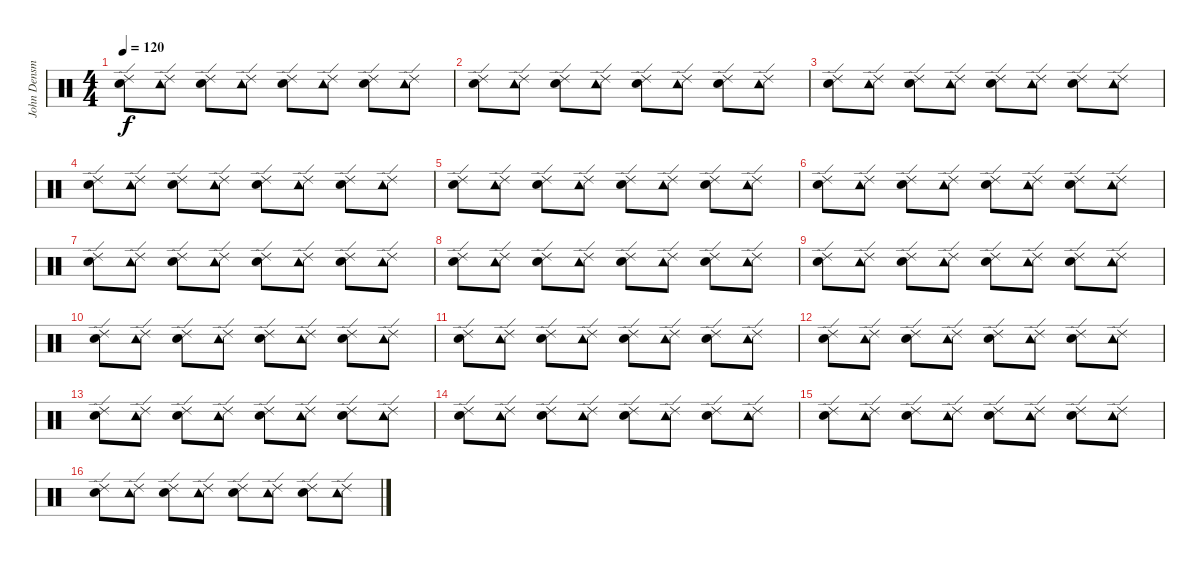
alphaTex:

\track ("John Densmore" "John Densm") {instrument percussion}
\staff {score}
\articulation defaults
\ts (4 4)
\tempo 120
\clef neutral
\ks c
("Ride (edge) 2" "Electric Snare (hit)").8{dy f} ("Ride (edge) 2" "Tambourine (hit)").8 ("Ride (edge) 2" "Snare (hit) 2").8 ("Ride (edge) 2" "Tambourine (hit)").8 ("Ride (edge) 2" "Electric Snare (hit)").8 ("Ride (edge) 2" "Tambourine (hit)").8 ("Ride (edge) 2" "Snare (hit) 2").8 ("Ride (edge) 2" "Tambourine (hit)").8 |
("Ride (edge) 2" "Electric Snare (hit)").8 ("Ride (edge) 2" "Tambourine (hit)").8 ("Ride (edge) 2" "Snare (hit) 2").8 ("Ride (edge) 2" "Tambourine (hit)").8 ("Ride (edge) 2" "Electric Snare (hit)").8 ("Ride (edge) 2" "Tambourine (hit)").8 ("Ride (edge) 2" "Snare (hit) 2").8 ("Ride (edge) 2" "Tambourine (hit)").8 |
("Ride (edge) 2" "Electric Snare (hit)").8 ("Ride (edge) 2" "Tambourine (hit)").8 ("Ride (edge) 2" "Snare (hit) 2").8 ("Ride (edge) 2" "Tambourine (hit)").8 ("Ride (edge) 2" "Electric Snare (hit)").8 ("Ride (edge) 2" "Tambourine (hit)").8 ("Ride (edge) 2" "Snare (hit) 2").8 ("Ride (edge) 2" "Tambourine (hit)").8 |
("Ride (edge) 2" "Electric Snare (hit)").8 ("Ride (edge) 2" "Tambourine (hit)").8 ("Ride (edge) 2" "Snare (hit) 2").8 ("Ride (edge) 2" "Tambourine (hit)").8 ("Ride (edge) 2" "Electric Snare (hit)").8 ("Ride (edge) 2" "Tambourine (hit)").8 ("Ride (edge) 2" "Snare (hit) 2").8 ("Ride (edge) 2" "Tambourine (hit)").8 |
("Ride (edge) 2" "Electric Snare (hit)").8 ("Ride (edge) 2" "Tambourine (hit)").8 ("Ride (edge) 2" "Snare (hit) 2").8 ("Ride (edge) 2" "Tambourine (hit)").8 ("Ride (edge) 2" "Electric Snare (hit)").8 ("Ride (edge) 2" "Tambourine (hit)").8 ("Ride (edge) 2" "Snare (hit) 2").8 ("Ride (edge) 2" "Tambourine (hit)").8 |
("Ride (edge) 2" "Electric Snare (hit)").8 ("Ride (edge) 2" "Tambourine (hit)").8 ("Ride (edge) 2" "Snare (hit) 2").8 ("Ride (edge) 2" "Tambourine (hit)").8 ("Ride (edge) 2" "Electric Snare (hit)").8 ("Ride (edge) 2" "Tambourine (hit)").8 ("Ride (edge) 2" "Snare (hit) 2").8 ("Ride (edge) 2" "Tambourine (hit)").8 |
("Ride (edge) 2" "Electric Snare (hit)").8 ("Ride (edge) 2" "Tambourine (hit)").8 ("Ride (edge) 2" "Snare (hit) 2").8 ("Ride (edge) 2" "Tambourine (hit)").8 ("Ride (edge) 2" "Electric Snare (hit)").8 ("Ride (edge) 2" "Tambourine (hit)").8 ("Ride (edge) 2" "Snare (hit) 2").8 ("Ride (edge) 2" "Tambourine (hit)").8 |
("Ride (edge) 2" "Electric Snare (hit)").8 ("Ride (edge) 2" "Tambourine (hit)").8 ("Ride (edge) 2" "Snare (hit) 2").8 ("Ride (edge) 2" "Tambourine (hit)").8 ("Ride (edge) 2" "Electric Snare (hit)").8 ("Ride (edge) 2" "Tambourine (hit)").8 ("Ride (edge) 2" "Snare (hit) 2").8 ("Ride (edge) 2" "Tambourine (hit)").8 |
("Ride (edge) 2" "Electric Snare (hit)").8 ("Ride (edge) 2" "Tambourine (hit)").8 ("Ride (edge) 2" "Snare (hit) 2").8 ("Ride (edge) 2" "Tambourine (hit)").8 ("Ride (edge) 2" "Electric Snare (hit)").8 ("Ride (edge) 2" "Tambourine (hit)").8 ("Ride (edge) 2" "Snare (hit) 2").8 ("Ride (edge) 2" "Tambourine (hit)").8 |
("Ride (edge) 2" "Electric Snare (hit)").8 ("Ride (edge) 2" "Tambourine (hit)").8 ("Ride (edge) 2" "Snare (hit) 2").8 ("Ride (edge) 2" "Tambourine (hit)").8 ("Ride (edge) 2" "Electric Snare (hit)").8 ("Ride (edge) 2" "Tambourine (hit)").8 ("Ride (edge) 2" "Snare (hit) 2").8 ("Ride (edge) 2" "Tambourine (hit)").8 |
("Ride (edge) 2" "Electric Snare (hit)").8 ("Ride (edge) 2" "Tambourine (hit)").8 ("Ride (edge) 2" "Snare (hit) 2").8 ("Ride (edge) 2" "Tambourine (hit)").8 ("Ride (edge) 2" "Electric Snare (hit)").8 ("Ride (edge) 2" "Tambourine (hit)").8 ("Ride (edge) 2" "Snare (hit) 2").8 ("Ride (edge) 2" "Tambourine (hit)").8 |
("Ride (edge) 2" "Electric Snare (hit)").8 ("Ride (edge) 2" "Tambourine (hit)").8 ("Ride (edge) 2" "Snare (hit) 2").8 ("Ride (edge) 2" "Tambourine (hit)").8 ("Ride (edge) 2" "Electric Snare (hit)").8 ("Ride (edge) 2" "Tambourine (hit)").8 ("Ride (edge) 2" "Snare (hit) 2").8 ("Ride (edge) 2" "Tambourine (hit)").8 |
("Ride (edge) 2" "Electric Snare (hit)").8 ("Ride (edge) 2" "Tambourine (hit)").8 ("Ride (edge) 2" "Snare (hit) 2").8 ("Ride (edge) 2" "Tambourine (hit)").8 ("Ride (edge) 2" "Electric Snare (hit)").8 ("Ride (edge) 2" "Tambourine (hit)").8 ("Ride (edge) 2" "Snare (hit) 2").8 ("Ride (edge) 2" "Tambourine (hit)").8 |
("Ride (edge) 2" "Electric Snare (hit)").8 ("Ride (edge) 2" "Tambourine (hit)").8 ("Ride (edge) 2" "Snare (hit) 2").8 ("Ride (edge) 2" "Tambourine (hit)").8 ("Ride (edge) 2" "Electric Snare (hit)").8 ("Ride (edge) 2" "Tambourine (hit)").8 ("Ride (edge) 2" "Snare (hit) 2").8 ("Ride (edge) 2" "Tambourine (hit)").8 |
("Ride (edge) 2" "Electric Snare (hit)").8 ("Ride (edge) 2" "Tambourine (hit)").8 ("Ride (edge) 2" "Snare (hit) 2").8 ("Ride (edge) 2" "Tambourine (hit)").8 ("Ride (edge) 2" "Electric Snare (hit)").8 ("Ride (edge) 2" "Tambourine (hit)").8 ("Ride (edge) 2" "Snare (hit) 2").8 ("Ride (edge) 2" "Tambourine (hit)").8 |
("Ride (edge) 2" "Electric Snare (hit)").8 ("Ride (edge) 2" "Tambourine (hit)").8 ("Ride (edge) 2" "Snare (hit) 2").8 ("Ride (edge) 2" "Tambourine (hit)").8 ("Ride (edge) 2" "Electric Snare (hit)").8 ("Ride (edge) 2" "Tambourine (hit)").8 ("Ride (edge) 2" "Snare (hit) 2").8 ("Ride (edge) 2" "Tambourine (hit)").8
